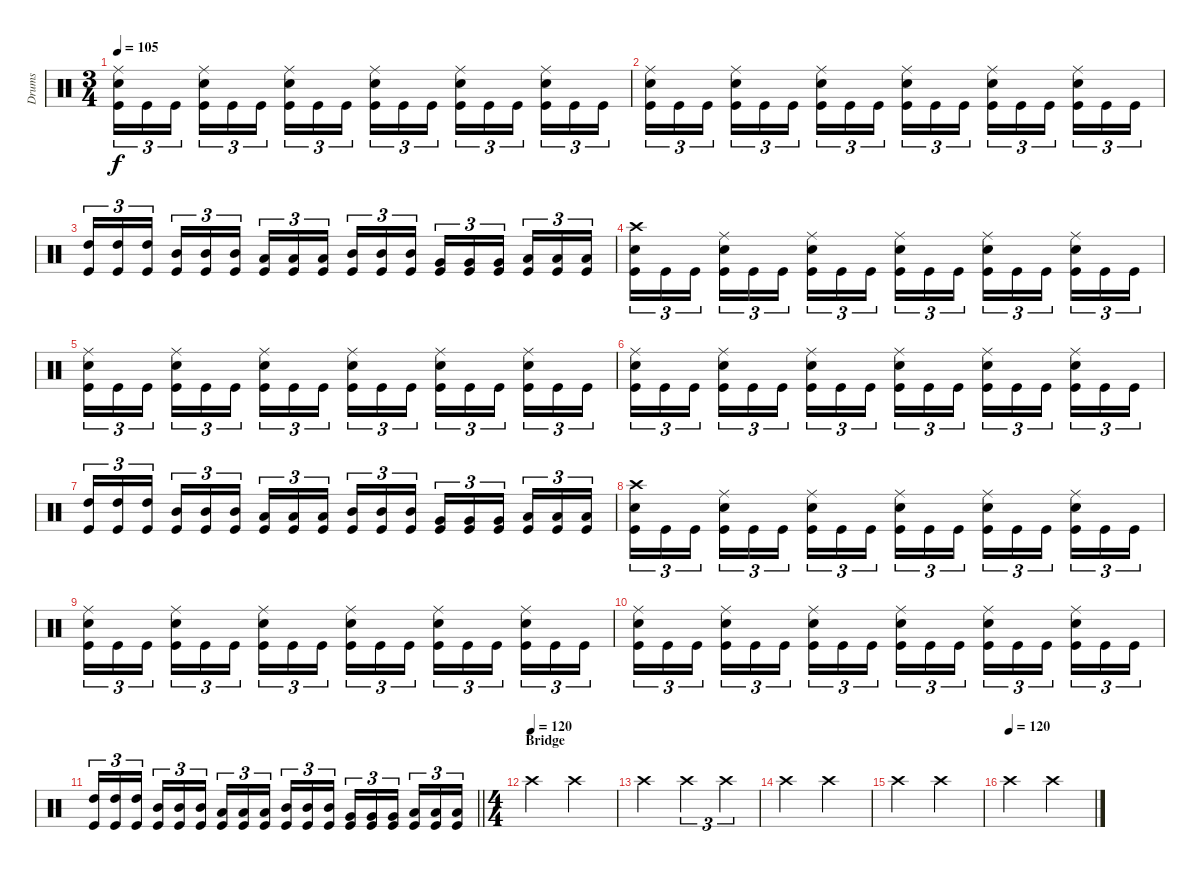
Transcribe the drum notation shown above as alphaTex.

\track ("Drums" "Drums") {instrument percussion}
\staff {score}
\articulation defaults
\ts (3 4)
\tempo 105
\clef neutral
\ks c
("Ride (middle)" "Snare (hit) 2" "Kick (hit)").16{tu (3 2) dy f} "Kick (hit)".16{tu (3 2)} "Kick (hit)".16{tu (3 2)} ("Ride (middle)" "Snare (hit) 2" "Kick (hit)").16{tu (3 2)} "Kick (hit)".16{tu (3 2)} "Kick (hit)".16{tu (3 2)} ("Ride (middle)" "Snare (hit) 2" "Kick (hit)").16{tu (3 2)} "Kick (hit)".16{tu (3 2)} "Kick (hit)".16{tu (3 2)} ("Ride (middle)" "Snare (hit) 2" "Kick (hit)").16{tu (3 2)} "Kick (hit)".16{tu (3 2)} "Kick (hit)".16{tu (3 2)} ("Ride (middle)" "Snare (hit) 2" "Kick (hit)").16{tu (3 2)} "Kick (hit)".16{tu (3 2)} "Kick (hit)".16{tu (3 2)} ("Ride (middle)" "Snare (hit) 2" "Kick (hit)").16{tu (3 2)} "Kick (hit)".16{tu (3 2)} "Kick (hit)".16{tu (3 2)} |
("Ride (middle)" "Snare (hit) 2" "Kick (hit)").16{tu (3 2)} "Kick (hit)".16{tu (3 2)} "Kick (hit)".16{tu (3 2)} ("Ride (middle)" "Snare (hit) 2" "Kick (hit)").16{tu (3 2)} "Kick (hit)".16{tu (3 2)} "Kick (hit)".16{tu (3 2)} ("Ride (middle)" "Snare (hit) 2" "Kick (hit)").16{tu (3 2)} "Kick (hit)".16{tu (3 2)} "Kick (hit)".16{tu (3 2)} ("Ride (middle)" "Snare (hit) 2" "Kick (hit)").16{tu (3 2)} "Kick (hit)".16{tu (3 2)} "Kick (hit)".16{tu (3 2)} ("Ride (middle)" "Snare (hit) 2" "Kick (hit)").16{tu (3 2)} "Kick (hit)".16{tu (3 2)} "Kick (hit)".16{tu (3 2)} ("Ride (middle)" "Snare (hit) 2" "Kick (hit)").16{tu (3 2)} "Kick (hit)".16{tu (3 2)} "Kick (hit)".16{tu (3 2)} |
("High Tom (hit)" "Kick (hit)").16{tu (3 2)} ("High Tom (hit)" "Kick (hit)").16{tu (3 2)} ("High Tom (hit)" "Kick (hit)").16{tu (3 2)} ("Mid Tom (hit)" "Kick (hit)").16{tu (3 2)} ("Mid Tom (hit)" "Kick (hit)").16{tu (3 2)} ("Mid Tom (hit)" "Kick (hit)").16{tu (3 2)} ("Low Tom (hit)" "Kick (hit)").16{tu (3 2)} ("Low Tom (hit)" "Kick (hit)").16{tu (3 2)} ("Low Tom (hit)" "Kick (hit)").16{tu (3 2)} ("Mid Tom (hit)" "Kick (hit)").16{tu (3 2)} ("Mid Tom (hit)" "Kick (hit)").16{tu (3 2)} ("Mid Tom (hit)" "Kick (hit)").16{tu (3 2)} ("Very Low Tom (hit)" "Kick (hit)").16{tu (3 2)} ("Very Low Tom (hit)" "Kick (hit)").16{tu (3 2)} ("Very Low Tom (hit)" "Kick (hit)").16{tu (3 2)} ("Low Floor Tom (hit)" "Kick (hit)").16{tu (3 2)} ("Low Floor Tom (hit)" "Kick (hit)").16{tu (3 2)} ("Low Floor Tom (hit)" "Kick (hit)").16{tu (3 2)} |
("Crash high (hit)" "Snare (hit) 2" "Kick (hit)").16{tu (3 2)} "Kick (hit)".16{tu (3 2)} "Kick (hit)".16{tu (3 2)} ("Ride (middle)" "Snare (hit) 2" "Kick (hit)").16{tu (3 2)} "Kick (hit)".16{tu (3 2)} "Kick (hit)".16{tu (3 2)} ("Ride (middle)" "Snare (hit) 2" "Kick (hit)").16{tu (3 2)} "Kick (hit)".16{tu (3 2)} "Kick (hit)".16{tu (3 2)} ("Ride (middle)" "Snare (hit) 2" "Kick (hit)").16{tu (3 2)} "Kick (hit)".16{tu (3 2)} "Kick (hit)".16{tu (3 2)} ("Ride (middle)" "Snare (hit) 2" "Kick (hit)").16{tu (3 2)} "Kick (hit)".16{tu (3 2)} "Kick (hit)".16{tu (3 2)} ("Ride (middle)" "Snare (hit) 2" "Kick (hit)").16{tu (3 2)} "Kick (hit)".16{tu (3 2)} "Kick (hit)".16{tu (3 2)} |
("Ride (middle)" "Snare (hit) 2" "Kick (hit)").16{tu (3 2)} "Kick (hit)".16{tu (3 2)} "Kick (hit)".16{tu (3 2)} ("Ride (middle)" "Snare (hit) 2" "Kick (hit)").16{tu (3 2)} "Kick (hit)".16{tu (3 2)} "Kick (hit)".16{tu (3 2)} ("Ride (middle)" "Snare (hit) 2" "Kick (hit)").16{tu (3 2)} "Kick (hit)".16{tu (3 2)} "Kick (hit)".16{tu (3 2)} ("Ride (middle)" "Snare (hit) 2" "Kick (hit)").16{tu (3 2)} "Kick (hit)".16{tu (3 2)} "Kick (hit)".16{tu (3 2)} ("Ride (middle)" "Snare (hit) 2" "Kick (hit)").16{tu (3 2)} "Kick (hit)".16{tu (3 2)} "Kick (hit)".16{tu (3 2)} ("Ride (middle)" "Snare (hit) 2" "Kick (hit)").16{tu (3 2)} "Kick (hit)".16{tu (3 2)} "Kick (hit)".16{tu (3 2)} |
("Ride (middle)" "Snare (hit) 2" "Kick (hit)").16{tu (3 2)} "Kick (hit)".16{tu (3 2)} "Kick (hit)".16{tu (3 2)} ("Ride (middle)" "Snare (hit) 2" "Kick (hit)").16{tu (3 2)} "Kick (hit)".16{tu (3 2)} "Kick (hit)".16{tu (3 2)} ("Ride (middle)" "Snare (hit) 2" "Kick (hit)").16{tu (3 2)} "Kick (hit)".16{tu (3 2)} "Kick (hit)".16{tu (3 2)} ("Ride (middle)" "Snare (hit) 2" "Kick (hit)").16{tu (3 2)} "Kick (hit)".16{tu (3 2)} "Kick (hit)".16{tu (3 2)} ("Ride (middle)" "Snare (hit) 2" "Kick (hit)").16{tu (3 2)} "Kick (hit)".16{tu (3 2)} "Kick (hit)".16{tu (3 2)} ("Ride (middle)" "Snare (hit) 2" "Kick (hit)").16{tu (3 2)} "Kick (hit)".16{tu (3 2)} "Kick (hit)".16{tu (3 2)} |
("High Tom (hit)" "Kick (hit)").16{tu (3 2)} ("High Tom (hit)" "Kick (hit)").16{tu (3 2)} ("High Tom (hit)" "Kick (hit)").16{tu (3 2)} ("Mid Tom (hit)" "Kick (hit)").16{tu (3 2)} ("Mid Tom (hit)" "Kick (hit)").16{tu (3 2)} ("Mid Tom (hit)" "Kick (hit)").16{tu (3 2)} ("Low Tom (hit)" "Kick (hit)").16{tu (3 2)} ("Low Tom (hit)" "Kick (hit)").16{tu (3 2)} ("Low Tom (hit)" "Kick (hit)").16{tu (3 2)} ("Mid Tom (hit)" "Kick (hit)").16{tu (3 2)} ("Mid Tom (hit)" "Kick (hit)").16{tu (3 2)} ("Mid Tom (hit)" "Kick (hit)").16{tu (3 2)} ("Very Low Tom (hit)" "Kick (hit)").16{tu (3 2)} ("Very Low Tom (hit)" "Kick (hit)").16{tu (3 2)} ("Very Low Tom (hit)" "Kick (hit)").16{tu (3 2)} ("Low Floor Tom (hit)" "Kick (hit)").16{tu (3 2)} ("Low Floor Tom (hit)" "Kick (hit)").16{tu (3 2)} ("Low Floor Tom (hit)" "Kick (hit)").16{tu (3 2)} |
("Crash high (hit)" "Snare (hit) 2" "Kick (hit)").16{tu (3 2)} "Kick (hit)".16{tu (3 2)} "Kick (hit)".16{tu (3 2)} ("Ride (middle)" "Snare (hit) 2" "Kick (hit)").16{tu (3 2)} "Kick (hit)".16{tu (3 2)} "Kick (hit)".16{tu (3 2)} ("Ride (middle)" "Snare (hit) 2" "Kick (hit)").16{tu (3 2)} "Kick (hit)".16{tu (3 2)} "Kick (hit)".16{tu (3 2)} ("Ride (middle)" "Snare (hit) 2" "Kick (hit)").16{tu (3 2)} "Kick (hit)".16{tu (3 2)} "Kick (hit)".16{tu (3 2)} ("Ride (middle)" "Snare (hit) 2" "Kick (hit)").16{tu (3 2)} "Kick (hit)".16{tu (3 2)} "Kick (hit)".16{tu (3 2)} ("Ride (middle)" "Snare (hit) 2" "Kick (hit)").16{tu (3 2)} "Kick (hit)".16{tu (3 2)} "Kick (hit)".16{tu (3 2)} |
("Ride (middle)" "Snare (hit) 2" "Kick (hit)").16{tu (3 2)} "Kick (hit)".16{tu (3 2)} "Kick (hit)".16{tu (3 2)} ("Ride (middle)" "Snare (hit) 2" "Kick (hit)").16{tu (3 2)} "Kick (hit)".16{tu (3 2)} "Kick (hit)".16{tu (3 2)} ("Ride (middle)" "Snare (hit) 2" "Kick (hit)").16{tu (3 2)} "Kick (hit)".16{tu (3 2)} "Kick (hit)".16{tu (3 2)} ("Ride (middle)" "Snare (hit) 2" "Kick (hit)").16{tu (3 2)} "Kick (hit)".16{tu (3 2)} "Kick (hit)".16{tu (3 2)} ("Ride (middle)" "Snare (hit) 2" "Kick (hit)").16{tu (3 2)} "Kick (hit)".16{tu (3 2)} "Kick (hit)".16{tu (3 2)} ("Ride (middle)" "Snare (hit) 2" "Kick (hit)").16{tu (3 2)} "Kick (hit)".16{tu (3 2)} "Kick (hit)".16{tu (3 2)} |
("Ride (middle)" "Snare (hit) 2" "Kick (hit)").16{tu (3 2)} "Kick (hit)".16{tu (3 2)} "Kick (hit)".16{tu (3 2)} ("Ride (middle)" "Snare (hit) 2" "Kick (hit)").16{tu (3 2)} "Kick (hit)".16{tu (3 2)} "Kick (hit)".16{tu (3 2)} ("Ride (middle)" "Snare (hit) 2" "Kick (hit)").16{tu (3 2)} "Kick (hit)".16{tu (3 2)} "Kick (hit)".16{tu (3 2)} ("Ride (middle)" "Snare (hit) 2" "Kick (hit)").16{tu (3 2)} "Kick (hit)".16{tu (3 2)} "Kick (hit)".16{tu (3 2)} ("Ride (middle)" "Snare (hit) 2" "Kick (hit)").16{tu (3 2)} "Kick (hit)".16{tu (3 2)} "Kick (hit)".16{tu (3 2)} ("Ride (middle)" "Snare (hit) 2" "Kick (hit)").16{tu (3 2)} "Kick (hit)".16{tu (3 2)} "Kick (hit)".16{tu (3 2)} |
\barLineRight lightlight
("High Tom (hit)" "Kick (hit)").16{tu (3 2)} ("High Tom (hit)" "Kick (hit)").16{tu (3 2)} ("High Tom (hit)" "Kick (hit)").16{tu (3 2)} ("Mid Tom (hit)" "Kick (hit)").16{tu (3 2)} ("Mid Tom (hit)" "Kick (hit)").16{tu (3 2)} ("Mid Tom (hit)" "Kick (hit)").16{tu (3 2)} ("Low Tom (hit)" "Kick (hit)").16{tu (3 2)} ("Low Tom (hit)" "Kick (hit)").16{tu (3 2)} ("Low Tom (hit)" "Kick (hit)").16{tu (3 2)} ("Mid Tom (hit)" "Kick (hit)").16{tu (3 2)} ("Mid Tom (hit)" "Kick (hit)").16{tu (3 2)} ("Mid Tom (hit)" "Kick (hit)").16{tu (3 2)} ("Very Low Tom (hit)" "Kick (hit)").16{tu (3 2)} ("Very Low Tom (hit)" "Kick (hit)").16{tu (3 2)} ("Very Low Tom (hit)" "Kick (hit)").16{tu (3 2)} ("Low Floor Tom (hit)" "Kick (hit)").16{tu (3 2)} ("Low Floor Tom (hit)" "Kick (hit)").16{tu (3 2)} ("Low Floor Tom (hit)" "Kick (hit)").16{tu (3 2)} |
\ts (4 4)
\section ("" "Bridge")
\tempo (120)
"Crash high (hit)".2 "Crash high (hit)".2 |
"Crash high (hit)".2 "Crash high (hit)".2{tu (3 2)} "Crash high (hit)".4{tu (3 2)} |
"Crash high (hit)".2 "Crash high (hit)".2 |
"Crash high (hit)".2 "Crash high (hit)".2 |
\tempo (120)
"Crash high (hit)".2 "Crash high (hit)".2
